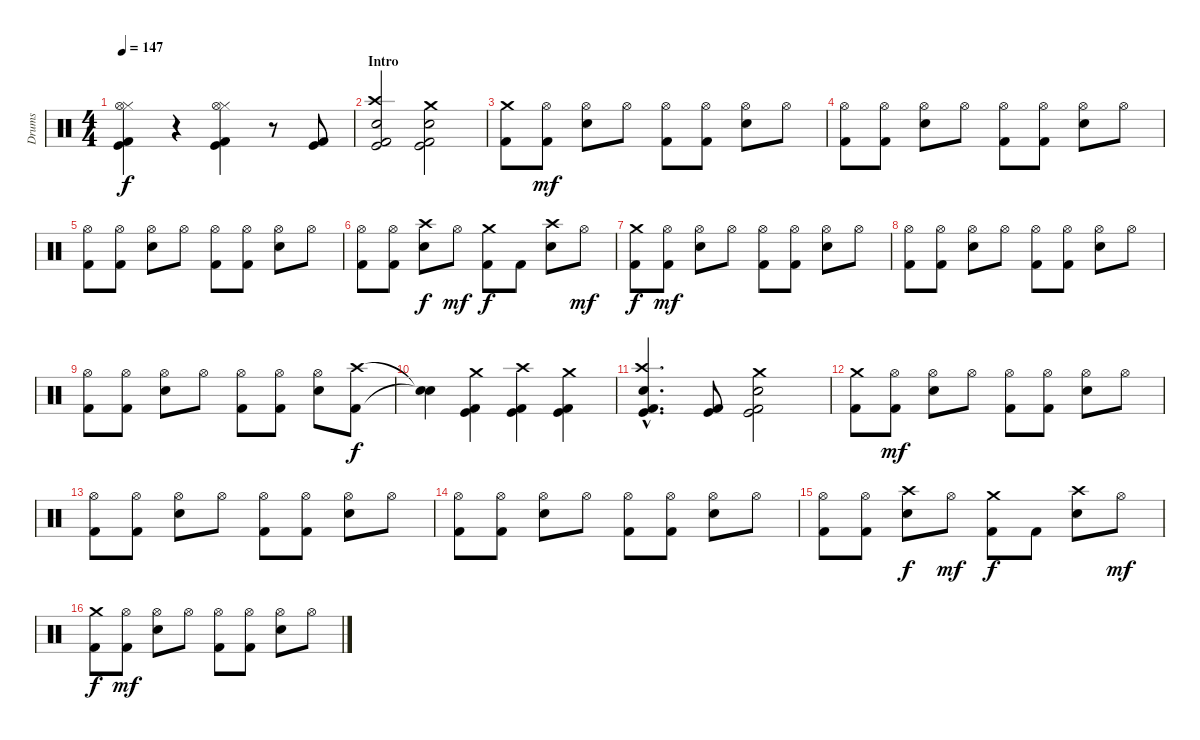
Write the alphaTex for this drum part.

\track ("Drums" "Drums") {instrument percussion}
\staff {score}
\articulation defaults
\ts (4 4)
\tempo 147
\clef neutral
\ks c
("Hi-Hat (closed)" "Kick (hit)" "Kick (hit) 2" "Hi-Hat (open)").4{dy f} r.4 ("Hi-Hat (closed)" "Kick (hit)" "Kick (hit) 2" "Hi-Hat (open)").4 r.8 ("Kick (hit)" "Kick (hit) 2").8 |
\section ("" "Intro")
("Crash high (hit)" "Kick (hit) 2" "Kick (hit)" "Snare (hit) 2").2 ("Crash medium (hit)" "Kick (hit) 2" "Kick (hit)" "Snare (hit) 2").2 |
("Crash medium (hit)" "Kick (hit) 2").8 ("Hi-Hat (open)" "Kick (hit) 2").8{dy mf} ("Hi-Hat (open)" "Snare (hit) 2").8 "Hi-Hat (open)".8 ("Hi-Hat (open)" "Kick (hit) 2").8 ("Hi-Hat (open)" "Kick (hit) 2").8 ("Hi-Hat (open)" "Snare (hit) 2").8 "Hi-Hat (open)".8 |
("Hi-Hat (open)" "Kick (hit) 2").8 ("Hi-Hat (open)" "Kick (hit) 2").8 ("Hi-Hat (open)" "Snare (hit) 2").8 "Hi-Hat (open)".8 ("Hi-Hat (open)" "Kick (hit) 2").8 ("Hi-Hat (open)" "Kick (hit) 2").8 ("Hi-Hat (open)" "Snare (hit) 2").8 "Hi-Hat (open)".8 |
("Hi-Hat (open)" "Kick (hit) 2").8 ("Hi-Hat (open)" "Kick (hit) 2").8 ("Hi-Hat (open)" "Snare (hit) 2").8 "Hi-Hat (open)".8 ("Hi-Hat (open)" "Kick (hit) 2").8 ("Hi-Hat (open)" "Kick (hit) 2").8 ("Hi-Hat (open)" "Snare (hit) 2").8 "Hi-Hat (open)".8 |
("Hi-Hat (open)" "Kick (hit) 2").8 ("Hi-Hat (open)" "Kick (hit) 2").8 ("Crash high (hit)" "Snare (hit) 2").8{dy f} "Hi-Hat (open)".8{dy mf} ("Crash medium (hit)" "Kick (hit) 2").8{dy f} "Kick (hit) 2".8 ("Crash high (hit)" "Snare (hit) 2").8 "Hi-Hat (open)".8{dy mf} |
("Crash medium (hit)" "Kick (hit) 2").8{dy f} ("Hi-Hat (open)" "Kick (hit) 2").8{dy mf} ("Hi-Hat (open)" "Snare (hit) 2").8 "Hi-Hat (open)".8 ("Hi-Hat (open)" "Kick (hit) 2").8 ("Hi-Hat (open)" "Kick (hit) 2").8 ("Hi-Hat (open)" "Snare (hit) 2").8 "Hi-Hat (open)".8 |
("Hi-Hat (open)" "Kick (hit) 2").8 ("Hi-Hat (open)" "Kick (hit) 2").8 ("Hi-Hat (open)" "Snare (hit) 2").8 "Hi-Hat (open)".8 ("Hi-Hat (open)" "Kick (hit) 2").8 ("Hi-Hat (open)" "Kick (hit) 2").8 ("Hi-Hat (open)" "Snare (hit) 2").8 "Hi-Hat (open)".8 |
("Hi-Hat (open)" "Kick (hit) 2").8 ("Hi-Hat (open)" "Kick (hit) 2").8 ("Hi-Hat (open)" "Snare (hit) 2").8 "Hi-Hat (open)".8 ("Hi-Hat (open)" "Kick (hit) 2").8 ("Hi-Hat (open)" "Kick (hit) 2").8 ("Hi-Hat (open)" "Snare (hit) 2").8 ("Crash high (hit)" "Kick (hit) 2").8{dy f} |
("Snare (hit)"{t} "Snare (hit)"{t}).4 ("Crash medium (hit)" "Kick (hit)" "Kick (hit) 2").4 ("Crash high (hit)" "Kick (hit)" "Kick (hit) 2").4 ("Crash medium (hit)" "Kick (hit)" "Kick (hit) 2").4 |
("Crash high (hit)"{hac} "Kick (hit) 2"{hac} "Kick (hit)"{hac} "Snare (hit) 2"{hac}).4{d} ("Kick (hit) 2" "Kick (hit)").8 ("Crash medium (hit)" "Kick (hit) 2" "Kick (hit)" "Snare (hit) 2").2 |
("Crash medium (hit)" "Kick (hit) 2").8 ("Hi-Hat (open)" "Kick (hit) 2").8{dy mf} ("Hi-Hat (open)" "Snare (hit) 2").8 "Hi-Hat (open)".8 ("Hi-Hat (open)" "Kick (hit) 2").8 ("Hi-Hat (open)" "Kick (hit) 2").8 ("Hi-Hat (open)" "Snare (hit) 2").8 "Hi-Hat (open)".8 |
("Hi-Hat (open)" "Kick (hit) 2").8 ("Hi-Hat (open)" "Kick (hit) 2").8 ("Hi-Hat (open)" "Snare (hit) 2").8 "Hi-Hat (open)".8 ("Hi-Hat (open)" "Kick (hit) 2").8 ("Hi-Hat (open)" "Kick (hit) 2").8 ("Hi-Hat (open)" "Snare (hit) 2").8 "Hi-Hat (open)".8 |
("Hi-Hat (open)" "Kick (hit) 2").8 ("Hi-Hat (open)" "Kick (hit) 2").8 ("Hi-Hat (open)" "Snare (hit) 2").8 "Hi-Hat (open)".8 ("Hi-Hat (open)" "Kick (hit) 2").8 ("Hi-Hat (open)" "Kick (hit) 2").8 ("Hi-Hat (open)" "Snare (hit) 2").8 "Hi-Hat (open)".8 |
("Hi-Hat (open)" "Kick (hit) 2").8 ("Hi-Hat (open)" "Kick (hit) 2").8 ("Crash high (hit)" "Snare (hit) 2").8{dy f} "Hi-Hat (open)".8{dy mf} ("Crash medium (hit)" "Kick (hit) 2").8{dy f} "Kick (hit) 2".8 ("Crash high (hit)" "Snare (hit) 2").8 "Hi-Hat (open)".8{dy mf} |
("Crash medium (hit)" "Kick (hit) 2").8{dy f} ("Hi-Hat (open)" "Kick (hit) 2").8{dy mf} ("Hi-Hat (open)" "Snare (hit) 2").8 "Hi-Hat (open)".8 ("Hi-Hat (open)" "Kick (hit) 2").8 ("Hi-Hat (open)" "Kick (hit) 2").8 ("Hi-Hat (open)" "Snare (hit) 2").8 "Hi-Hat (open)".8
